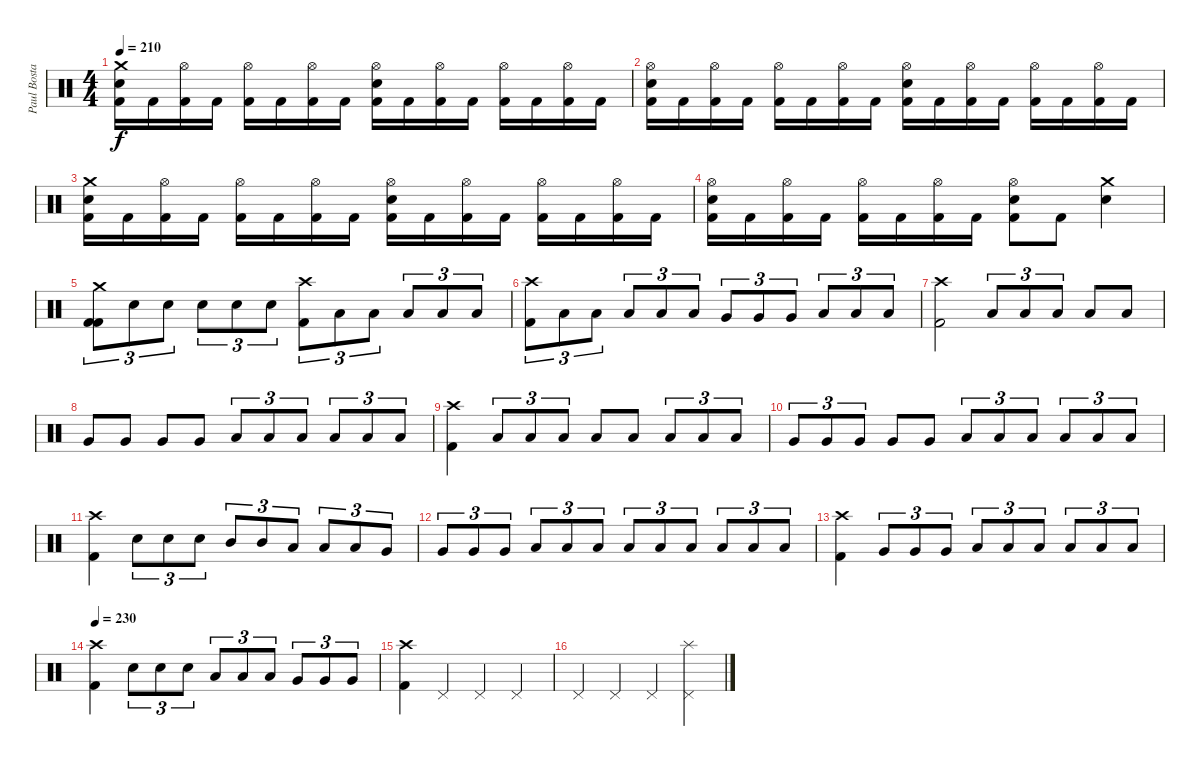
\track ("Paul Bostaph" "Paul Bosta") {instrument percussion}
\staff {score}
\articulation defaults
\ts (4 4)
\tempo 210
\clef neutral
\ks c
("Electric Snare (hit)" "Crash medium (hit)" "Kick (hit) 2").16{dy f} "Kick (hit) 2".16 ("Hi-Hat (open)" "Kick (hit) 2").16 "Kick (hit) 2".16 ("Hi-Hat (open)" "Kick (hit) 2").16 "Kick (hit) 2".16 ("Hi-Hat (open)" "Kick (hit) 2").16 "Kick (hit) 2".16 ("Electric Snare (hit)" "Hi-Hat (open)" "Kick (hit) 2").16 "Kick (hit) 2".16 ("Hi-Hat (open)" "Kick (hit) 2").16 "Kick (hit) 2".16 ("Hi-Hat (open)" "Kick (hit) 2").16 "Kick (hit) 2".16 ("Hi-Hat (open)" "Kick (hit) 2").16 "Kick (hit) 2".16 |
("Electric Snare (hit)" "Hi-Hat (open)" "Kick (hit) 2").16 "Kick (hit) 2".16 ("Hi-Hat (open)" "Kick (hit) 2").16 "Kick (hit) 2".16 ("Hi-Hat (open)" "Kick (hit) 2").16 "Kick (hit) 2".16 ("Hi-Hat (open)" "Kick (hit) 2").16 "Kick (hit) 2".16 ("Electric Snare (hit)" "Hi-Hat (open)" "Kick (hit) 2").16 "Kick (hit) 2".16 ("Hi-Hat (open)" "Kick (hit) 2").16 "Kick (hit) 2".16 ("Hi-Hat (open)" "Kick (hit) 2").16 "Kick (hit) 2".16 ("Hi-Hat (open)" "Kick (hit) 2").16 "Kick (hit) 2".16 |
("Electric Snare (hit)" "Crash medium (hit)" "Kick (hit) 2").16 "Kick (hit) 2".16 ("Hi-Hat (open)" "Kick (hit) 2").16 "Kick (hit) 2".16 ("Hi-Hat (open)" "Kick (hit) 2").16 "Kick (hit) 2".16 ("Hi-Hat (open)" "Kick (hit) 2").16 "Kick (hit) 2".16 ("Electric Snare (hit)" "Hi-Hat (open)" "Kick (hit) 2").16 "Kick (hit) 2".16 ("Hi-Hat (open)" "Kick (hit) 2").16 "Kick (hit) 2".16 ("Hi-Hat (open)" "Kick (hit) 2").16 "Kick (hit) 2".16 ("Hi-Hat (open)" "Kick (hit) 2").16 "Kick (hit) 2".16 |
("Electric Snare (hit)" "Hi-Hat (open)" "Kick (hit) 2").16 "Kick (hit) 2".16 ("Hi-Hat (open)" "Kick (hit) 2").16 "Kick (hit) 2".16 ("Hi-Hat (open)" "Kick (hit) 2").16 "Kick (hit) 2".16 ("Hi-Hat (open)" "Kick (hit) 2").16 "Kick (hit) 2".16 ("Electric Snare (hit)" "Hi-Hat (open)" "Kick (hit) 2").8 "Kick (hit) 2".8 ("Electric Snare (hit)" "Crash medium (hit)").4 |
("Kick (hit) 2" "Crash medium (hit)" "Kick (hit) 2").8{tu (3 2)} "Electric Snare (hit)".8{tu (3 2)} "Electric Snare (hit)".8{tu (3 2)} "Electric Snare (hit)".8{tu (3 2)} "Electric Snare (hit)".8{tu (3 2)} "Electric Snare (hit)".8{tu (3 2)} ("Crash high (hit)" "Kick (hit) 2").8{tu (3 2)} "Low Tom (hit)".8{tu (3 2)} "Low Tom (hit)".8{tu (3 2)} "Low Tom (hit)".8{tu (3 2)} "Low Tom (hit)".8{tu (3 2)} "Low Tom (hit)".8{tu (3 2)} |
("Kick (hit) 2" "Crash high (hit)").8{tu (3 2)} "Low Tom (hit)".8{tu (3 2)} "Low Tom (hit)".8{tu (3 2)} "Low Tom (hit)".8{tu (3 2)} "Low Tom (hit)".8{tu (3 2)} "Low Tom (hit)".8{tu (3 2)} "Very Low Tom (hit)".8{tu (3 2)} "Very Low Tom (hit)".8{tu (3 2)} "Very Low Tom (hit)".8{tu (3 2)} "Low Floor Tom (hit)".8{tu (3 2)} "Low Floor Tom (hit)".8{tu (3 2)} "Low Floor Tom (hit)".8{tu (3 2)} |
("Crash high (hit)" "Kick (hit) 2").2 "Low Tom (hit)".8{tu (3 2)} "Low Tom (hit)".8{tu (3 2)} "Low Tom (hit)".8{tu (3 2)} "Low Tom (hit)".8 "Low Tom (hit)".8 |
"Very Low Tom (hit)".8 "Very Low Tom (hit)".8 "Very Low Tom (hit)".8 "Very Low Tom (hit)".8 "Low Floor Tom (hit)".8{tu (3 2)} "Low Floor Tom (hit)".8{tu (3 2)} "Low Floor Tom (hit)".8{tu (3 2)} "Low Floor Tom (hit)".8{tu (3 2)} "Low Floor Tom (hit)".8{tu (3 2)} "Low Floor Tom (hit)".8{tu (3 2)} |
("Crash high (hit)" "Kick (hit) 2").4 "Low Tom (hit)".8{tu (3 2)} "Low Tom (hit)".8{tu (3 2)} "Low Tom (hit)".8{tu (3 2)} "Low Tom (hit)".8 "Low Tom (hit)".8 "Low Tom (hit)".8{tu (3 2)} "Low Tom (hit)".8{tu (3 2)} "Low Tom (hit)".8{tu (3 2)} |
"Very Low Tom (hit)".8{tu (3 2)} "Very Low Tom (hit)".8{tu (3 2)} "Very Low Tom (hit)".8{tu (3 2)} "Very Low Tom (hit)".8 "Very Low Tom (hit)".8 "Low Floor Tom (hit)".8{tu (3 2)} "Low Floor Tom (hit)".8{tu (3 2)} "Low Floor Tom (hit)".8{tu (3 2)} "Low Floor Tom (hit)".8{tu (3 2)} "Low Floor Tom (hit)".8{tu (3 2)} "Low Floor Tom (hit)".8{tu (3 2)} |
("Crash high (hit)" "Kick (hit) 2").4 "Electric Snare (hit)".8{tu (3 2)} "Electric Snare (hit)".8{tu (3 2)} "Electric Snare (hit)".8{tu (3 2)} "Mid Tom (hit)".8{tu (3 2)} "Mid Tom (hit)".8{tu (3 2)} "Low Tom (hit)".8{tu (3 2)} "Low Tom (hit)".8{tu (3 2)} "Low Tom (hit)".8{tu (3 2)} "Very Low Tom (hit)".8{tu (3 2)} |
"Very Low Tom (hit)".8{tu (3 2)} "Very Low Tom (hit)".8{tu (3 2)} "Very Low Tom (hit)".8{tu (3 2)} "Low Floor Tom (hit)".8{tu (3 2)} "Low Floor Tom (hit)".8{tu (3 2)} "Low Floor Tom (hit)".8{tu (3 2)} "Low Floor Tom (hit)".8{tu (3 2)} "Low Floor Tom (hit)".8{tu (3 2)} "Low Floor Tom (hit)".8{tu (3 2)} "Low Floor Tom (hit)".8{tu (3 2)} "Low Floor Tom (hit)".8{tu (3 2)} "Low Floor Tom (hit)".8{tu (3 2)} |
("Crash high (hit)" "Kick (hit) 2").4 "Very Low Tom (hit)".8{tu (3 2)} "Very Low Tom (hit)".8{tu (3 2)} "Very Low Tom (hit)".8{tu (3 2)} "Low Floor Tom (hit)".8{tu (3 2)} "Low Floor Tom (hit)".8{tu (3 2)} "Low Floor Tom (hit)".8{tu (3 2)} "Low Floor Tom (hit)".8{tu (3 2)} "Low Floor Tom (hit)".8{tu (3 2)} "Low Floor Tom (hit)".8{tu (3 2)} |
\tempo 230
("Crash high (hit)" "Kick (hit) 2").4 "Electric Snare (hit)".8{tu (3 2)} "Electric Snare (hit)".8{tu (3 2)} "Electric Snare (hit)".8{tu (3 2)} "Low Tom (hit)".8{tu (3 2)} "Low Tom (hit)".8{tu (3 2)} "Low Tom (hit)".8{tu (3 2)} "Very Low Tom (hit)".8{tu (3 2)} "Very Low Tom (hit)".8{tu (3 2)} "Very Low Tom (hit)".8{tu (3 2)} |
("Crash high (hit)" "Kick (hit) 2").4 "Pedal Hi-Hat (hit)".4 "Pedal Hi-Hat (hit)".4 "Pedal Hi-Hat (hit)".4 |
"Pedal Hi-Hat (hit)".4 "Pedal Hi-Hat (hit)".4 "Pedal Hi-Hat (hit)".4 ("Splash (hit)" "Pedal Hi-Hat (hit)").4
